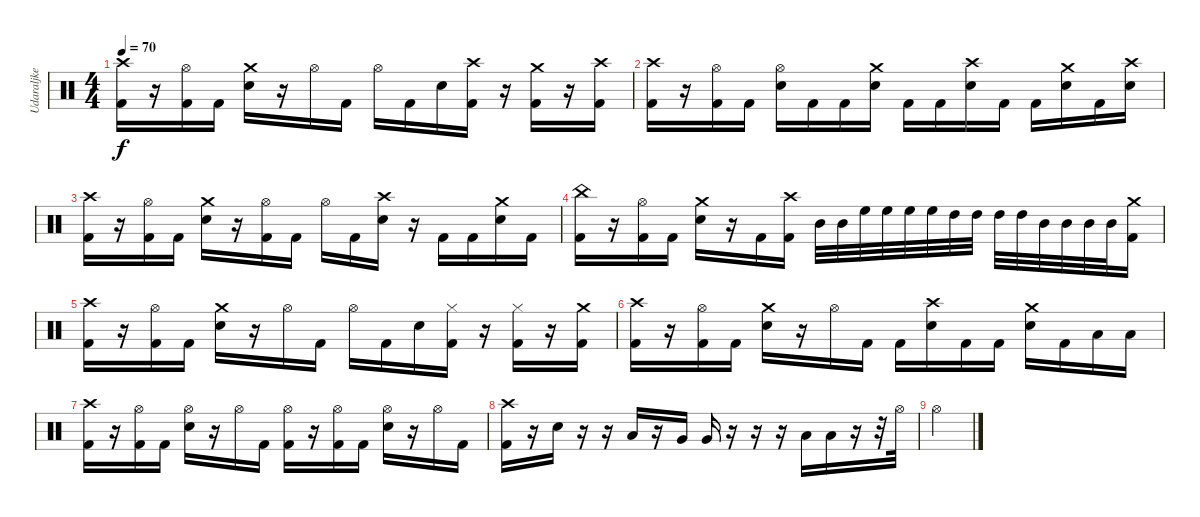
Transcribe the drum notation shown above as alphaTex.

\track ("Udaraljke" "Udaraljke") {instrument percussion}
\staff {score}
\articulation defaults
\ts (4 4)
\tempo 70
\clef neutral
\ks c
("Crash high (hit)" "Kick (hit) 2").16{dy f} r.16 ("Hi-Hat (open)" "Kick (hit) 2").16 "Kick (hit) 2".16 ("Crash medium (hit)" "Snare (hit) 2").16 r.16 "Hi-Hat (open)".16 "Kick (hit) 2".16 "Hi-Hat (open)".16 "Kick (hit) 2".16 "Snare (hit) 2".16 ("Crash high (hit)" "Kick (hit) 2").16 r.16 ("Crash medium (hit)" "Kick (hit) 2").16 r.16 ("Crash high (hit)" "Kick (hit) 2").16 |
("Crash high (hit)" "Kick (hit) 2").16 r.16 ("Hi-Hat (open)" "Kick (hit) 2").16 "Kick (hit) 2".16 ("Hi-Hat (open)" "Snare (hit) 2").16 "Kick (hit) 2".16 "Kick (hit) 2".16 ("Crash medium (hit)" "Snare (hit) 2").16 "Kick (hit) 2".16 "Kick (hit) 2".16 ("Crash high (hit)" "Snare (hit) 2").16 "Kick (hit) 2".16 "Kick (hit) 2".16 ("Crash medium (hit)" "Snare (hit) 2").16 "Kick (hit) 2".16 ("Crash high (hit)" "Snare (hit) 2").16 |
("Crash high (hit)" "Kick (hit) 2").16 r.16 ("Hi-Hat (open)" "Kick (hit) 2").16 "Kick (hit) 2".16 ("Crash medium (hit)" "Snare (hit) 2").16 r.16 ("Hi-Hat (open)" "Kick (hit) 2").16 "Kick (hit) 2".16 "Hi-Hat (open)".16 "Kick (hit) 2".16 ("Crash high (hit)" "Snare (hit) 2").16 r.16 "Kick (hit) 2".16 "Kick (hit) 2".16 ("Crash medium (hit)" "Snare (hit) 2").16 "Kick (hit) 2".16 |
("China (hit)" "Kick (hit) 2").16 r.16 ("Hi-Hat (open)" "Kick (hit) 2").16 "Kick (hit) 2".16 ("Crash medium (hit)" "Snare (hit) 2").16 r.16 "Kick (hit) 2".16 ("Crash high (hit)" "Kick (hit) 2").16 "Mid Tom (hit)".32 "Mid Tom (hit)".32 "High Floor Tom (hit)".32 "High Floor Tom (hit)".32 "High Floor Tom (hit)".32 "High Floor Tom (hit)".32 "High Tom (hit)".32 "High Tom (hit)".32 "High Tom (hit)".32 "High Tom (hit)".32 "Mid Tom (hit)".32 "Mid Tom (hit)".32 "Mid Tom (hit)".32 "Mid Tom (hit)".32 ("Crash medium (hit)" "Kick (hit) 2").16 |
("Crash high (hit)" "Kick (hit) 2").16 r.16 ("Hi-Hat (open)" "Kick (hit) 2").16 "Kick (hit) 2".16 ("Crash medium (hit)" "Snare (hit) 2").16 r.16 "Hi-Hat (open)".16 "Kick (hit) 2".16 "Hi-Hat (open)".16 "Kick (hit) 2".16 "Snare (hit) 2".16 ("Hi-Hat (closed)" "Kick (hit) 2").16 r.16 ("Hi-Hat (closed)" "Kick (hit) 2").16 r.16 ("Crash medium (hit)" "Kick (hit) 2").16 |
("Crash high (hit)" "Kick (hit) 2").16 r.16 ("Hi-Hat (open)" "Kick (hit) 2").16 "Kick (hit) 2".16 ("Crash medium (hit)" "Snare (hit) 2").16 r.16 "Hi-Hat (open)".16 "Kick (hit) 2".16 "Kick (hit) 2".16 ("Crash high (hit)" "Snare (hit) 2").16 "Kick (hit) 2".16 "Kick (hit) 2".16 ("Crash medium (hit)" "Snare (hit) 2").16 "Kick (hit) 2".16 "Low Floor Tom (hit)".16 "Low Floor Tom (hit)".16 |
("Crash high (hit)" "Kick (hit) 2").16 r.16 ("Hi-Hat (open)" "Kick (hit) 2").16 "Kick (hit) 2".16 ("Hi-Hat (open)" "Snare (hit) 2").16 r.16 "Hi-Hat (open)".16 "Kick (hit) 2".16 ("Hi-Hat (open)" "Kick (hit) 2").16 r.16 ("Hi-Hat (open)" "Kick (hit) 2").16 "Kick (hit) 2".16 ("Hi-Hat (open)" "Snare (hit) 2").16 r.16 "Hi-Hat (open)".16 "Kick (hit) 2".16 |
("Crash high (hit)" "Kick (hit) 2").16 r.16 "Snare (hit) 2".16 r.16 r.16 "Low Tom (hit)".16 r.16 "Very Low Tom (hit)".16 "Very Low Tom (hit)".16 r.16 r.16 r.16 "Low Floor Tom (hit)".16 "Low Floor Tom (hit)".16 r.16 r.32 "Hi-Hat (open)".32 |
"Hi-Hat (open)".4
